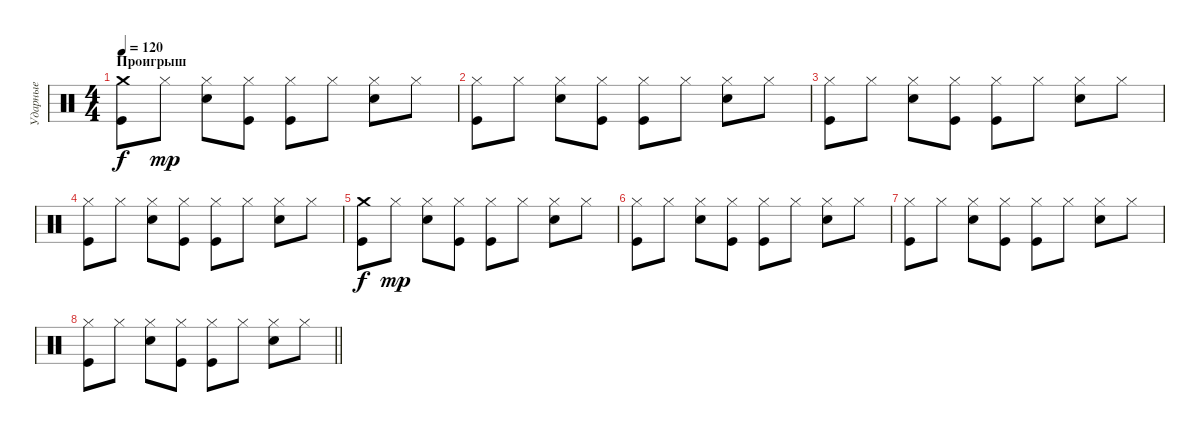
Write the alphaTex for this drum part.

\track ("Ударные" "Ударные") {instrument percussion}
\staff {score}
\articulation defaults
\ts (4 4)
\section ("" "Проигрыш")
\tempo 120
\clef neutral
\ks c
("Crash medium (hit)" "Kick (hit)").8{dy f} "Hi-Hat (closed)".8{dy mp} ("Hi-Hat (closed)" "Electric Snare (hit)").8 ("Hi-Hat (closed)" "Kick (hit)").8 ("Hi-Hat (closed)" "Kick (hit)").8 "Hi-Hat (closed)".8 ("Hi-Hat (closed)" "Electric Snare (hit)").8 "Hi-Hat (closed)".8 |
("Hi-Hat (closed)" "Kick (hit)").8 "Hi-Hat (closed)".8 ("Hi-Hat (closed)" "Electric Snare (hit)").8 ("Hi-Hat (closed)" "Kick (hit)").8 ("Hi-Hat (closed)" "Kick (hit)").8 "Hi-Hat (closed)".8 ("Hi-Hat (closed)" "Electric Snare (hit)").8 "Hi-Hat (closed)".8 |
("Hi-Hat (closed)" "Kick (hit)").8 "Hi-Hat (closed)".8 ("Hi-Hat (closed)" "Electric Snare (hit)").8 ("Hi-Hat (closed)" "Kick (hit)").8 ("Hi-Hat (closed)" "Kick (hit)").8 "Hi-Hat (closed)".8 ("Hi-Hat (closed)" "Electric Snare (hit)").8 "Hi-Hat (closed)".8 |
("Hi-Hat (closed)" "Kick (hit)").8 "Hi-Hat (closed)".8 ("Hi-Hat (closed)" "Electric Snare (hit)").8 ("Hi-Hat (closed)" "Kick (hit)").8 ("Hi-Hat (closed)" "Kick (hit)").8 "Hi-Hat (closed)".8 ("Hi-Hat (closed)" "Electric Snare (hit)").8 "Hi-Hat (closed)".8 |
("Crash medium (hit)" "Kick (hit)").8{dy f} "Hi-Hat (closed)".8{dy mp} ("Hi-Hat (closed)" "Electric Snare (hit)").8 ("Hi-Hat (closed)" "Kick (hit)").8 ("Hi-Hat (closed)" "Kick (hit)").8 "Hi-Hat (closed)".8 ("Hi-Hat (closed)" "Electric Snare (hit)").8 "Hi-Hat (closed)".8 |
("Hi-Hat (closed)" "Kick (hit)").8 "Hi-Hat (closed)".8 ("Hi-Hat (closed)" "Electric Snare (hit)").8 ("Hi-Hat (closed)" "Kick (hit)").8 ("Hi-Hat (closed)" "Kick (hit)").8 "Hi-Hat (closed)".8 ("Hi-Hat (closed)" "Electric Snare (hit)").8 "Hi-Hat (closed)".8 |
("Hi-Hat (closed)" "Kick (hit)").8 "Hi-Hat (closed)".8 ("Hi-Hat (closed)" "Electric Snare (hit)").8 ("Hi-Hat (closed)" "Kick (hit)").8 ("Hi-Hat (closed)" "Kick (hit)").8 "Hi-Hat (closed)".8 ("Hi-Hat (closed)" "Electric Snare (hit)").8 "Hi-Hat (closed)".8 |
\barLineRight lightlight
("Hi-Hat (closed)" "Kick (hit)").8 "Hi-Hat (closed)".8 ("Hi-Hat (closed)" "Electric Snare (hit)").8 ("Hi-Hat (closed)" "Kick (hit)").8 ("Hi-Hat (closed)" "Kick (hit)").8 "Hi-Hat (closed)".8 ("Hi-Hat (closed)" "Electric Snare (hit)").8 "Hi-Hat (closed)".8
